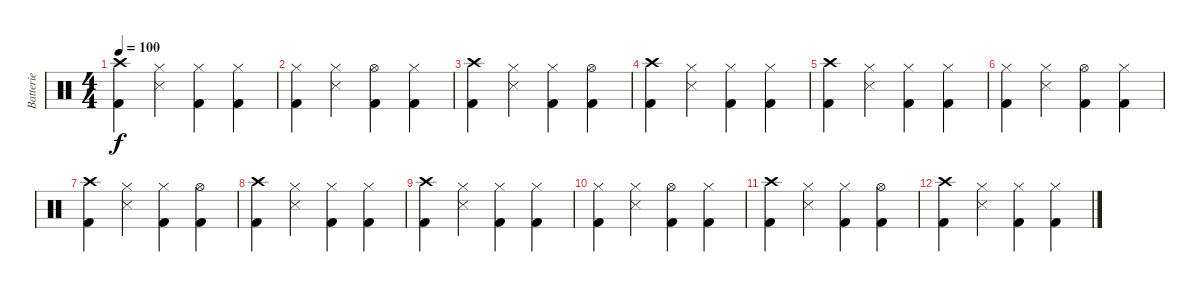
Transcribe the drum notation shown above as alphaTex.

\track ("Batterie" "Batterie") {instrument percussion}
\staff {score}
\articulation defaults
\ts (4 4)
\tempo 100
\clef neutral
\ks c
("Crash high (hit)" "Kick (hit) 2").4{dy f} ("Hi-Hat (closed)" "Snare (side stick) 3").4 ("Hi-Hat (closed)" "Kick (hit) 2").4 ("Hi-Hat (closed)" "Kick (hit) 2").4 |
("Hi-Hat (closed)" "Kick (hit) 2").4 ("Hi-Hat (closed)" "Snare (side stick) 3").4 ("Hi-Hat (open)" "Kick (hit) 2").4 ("Hi-Hat (closed)" "Kick (hit) 2").4 |
("Crash high (hit)" "Kick (hit) 2").4 ("Hi-Hat (closed)" "Snare (side stick) 3").4 ("Hi-Hat (closed)" "Kick (hit) 2").4 ("Hi-Hat (open)" "Kick (hit) 2").4 |
("Crash high (hit)" "Kick (hit) 2").4 ("Hi-Hat (closed)" "Snare (side stick) 3").4 ("Hi-Hat (closed)" "Kick (hit) 2").4 ("Hi-Hat (closed)" "Kick (hit) 2").4 |
("Crash high (hit)" "Kick (hit) 2").4 ("Hi-Hat (closed)" "Snare (side stick) 3").4 ("Hi-Hat (closed)" "Kick (hit) 2").4 ("Hi-Hat (closed)" "Kick (hit) 2").4 |
("Hi-Hat (closed)" "Kick (hit) 2").4 ("Hi-Hat (closed)" "Snare (side stick) 3").4 ("Hi-Hat (open)" "Kick (hit) 2").4 ("Hi-Hat (closed)" "Kick (hit) 2").4 |
("Crash high (hit)" "Kick (hit) 2").4 ("Hi-Hat (closed)" "Snare (side stick) 3").4 ("Hi-Hat (closed)" "Kick (hit) 2").4 ("Hi-Hat (open)" "Kick (hit) 2").4 |
("Crash high (hit)" "Kick (hit) 2").4 ("Hi-Hat (closed)" "Snare (side stick) 3").4 ("Hi-Hat (closed)" "Kick (hit) 2").4 ("Hi-Hat (closed)" "Kick (hit) 2").4 |
("Crash high (hit)" "Kick (hit) 2").4 ("Hi-Hat (closed)" "Snare (side stick) 3").4 ("Hi-Hat (closed)" "Kick (hit) 2").4 ("Hi-Hat (closed)" "Kick (hit) 2").4 |
("Hi-Hat (closed)" "Kick (hit) 2").4 ("Hi-Hat (closed)" "Snare (side stick) 3").4 ("Hi-Hat (open)" "Kick (hit) 2").4 ("Hi-Hat (closed)" "Kick (hit) 2").4 |
("Crash high (hit)" "Kick (hit) 2").4 ("Hi-Hat (closed)" "Snare (side stick) 3").4 ("Hi-Hat (closed)" "Kick (hit) 2").4 ("Hi-Hat (open)" "Kick (hit) 2").4 |
("Crash high (hit)" "Kick (hit) 2").4 ("Hi-Hat (closed)" "Snare (side stick) 3").4 ("Hi-Hat (closed)" "Kick (hit) 2").4 ("Hi-Hat (closed)" "Kick (hit) 2").4
